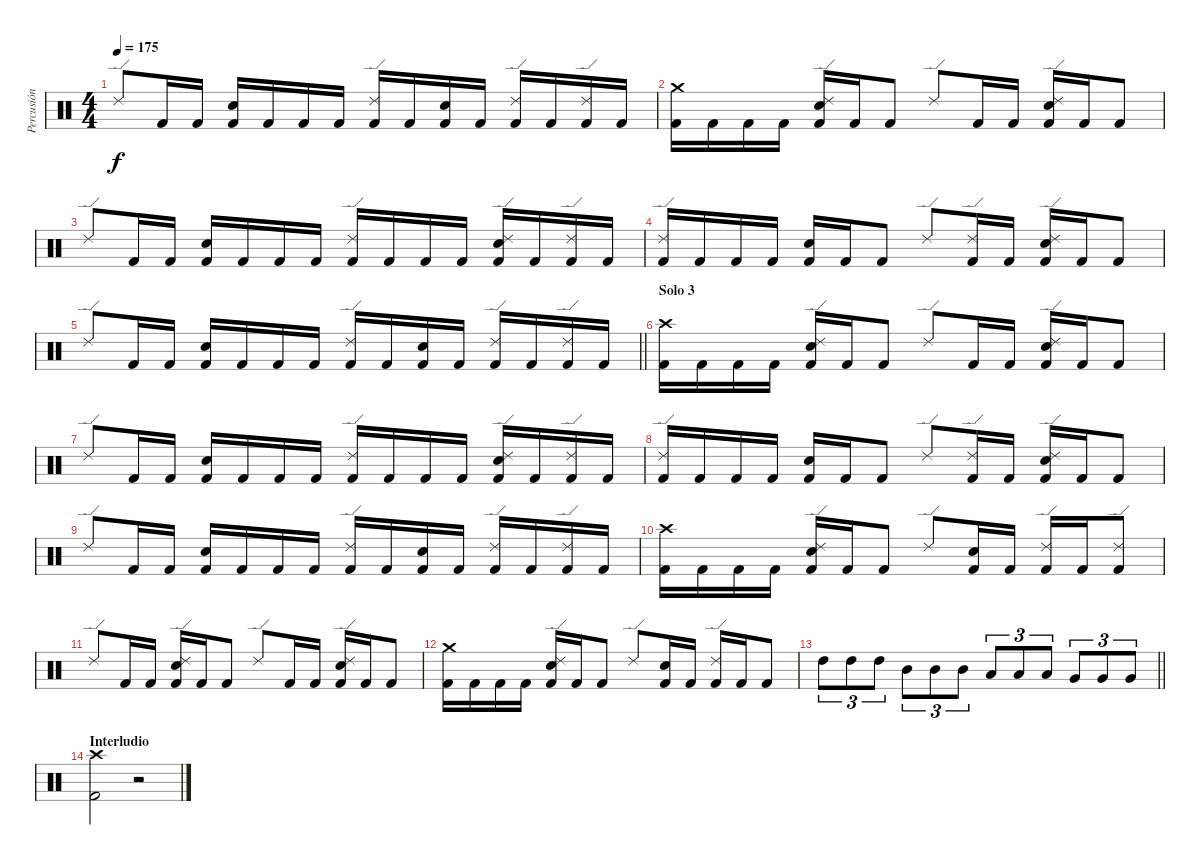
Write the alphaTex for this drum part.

\track ("Percusión" "Percusión") {instrument percussion}
\staff {score}
\articulation defaults
\ts (4 4)
\tempo 175
\clef neutral
\ks c "Ride (edge) 2".8{dy f} "Kick (hit) 2".16 "Kick (hit) 2".16
("Snare (hit) 2" "Kick (hit) 2").16 "Kick (hit) 2".16 "Kick (hit) 2".16 "Kick (hit) 2".16 ("Ride (edge) 2" "Kick (hit) 2").16 "Kick (hit) 2".16 ("Snare (hit) 2" "Kick (hit) 2").16 "Kick (hit) 2".16 ("Ride (edge) 2" "Kick (hit) 2").16 "Kick (hit) 2".16 ("Ride (edge) 2" "Kick (hit) 2").16 "Kick (hit) 2".16 |
("Crash medium (hit)" "Kick (hit) 2").16 "Kick (hit) 2".16 "Kick (hit) 2".16 "Kick (hit) 2".16 ("Ride (edge) 2" "Snare (hit) 2" "Kick (hit) 2").16 "Kick (hit) 2".16 "Kick (hit) 2".8 "Ride (edge) 2".8 "Kick (hit) 2".16 "Kick (hit) 2".16 ("Ride (edge) 2" "Snare (hit) 2" "Kick (hit) 2").16 "Kick (hit) 2".16 "Kick (hit) 2".8 |
"Ride (edge) 2".8 "Kick (hit) 2".16 "Kick (hit) 2".16 ("Snare (hit) 2" "Kick (hit) 2").16 "Kick (hit) 2".16 "Kick (hit) 2".16 "Kick (hit) 2".16 ("Ride (edge) 2" "Kick (hit) 2").16 "Kick (hit) 2".16 "Kick (hit) 2".16 "Kick (hit) 2".16 ("Ride (edge) 2" "Snare (hit) 2" "Kick (hit) 2").16 "Kick (hit) 2".16 ("Ride (edge) 2" "Kick (hit) 2").16 "Kick (hit) 2".16 |
("Ride (edge) 2" "Kick (hit) 2").16 "Kick (hit) 2".16 "Kick (hit) 2".16 "Kick (hit) 2".16 ("Snare (hit) 2" "Kick (hit) 2").16 "Kick (hit) 2".16 "Kick (hit) 2".8 "Ride (edge) 2".8 ("Ride (edge) 2" "Kick (hit) 2").16 "Kick (hit) 2".16 ("Ride (edge) 2" "Snare (hit) 2" "Kick (hit) 2").16 "Kick (hit) 2".16 "Kick (hit) 2".8 |
\barLineRight lightlight "Ride (edge) 2".8 "Kick (hit) 2".16 "Kick (hit) 2".16
("Snare (hit) 2" "Kick (hit) 2").16 "Kick (hit) 2".16 "Kick (hit) 2".16 "Kick (hit) 2".16 ("Ride (edge) 2" "Kick (hit) 2").16 "Kick (hit) 2".16 ("Snare (hit) 2" "Kick (hit) 2").16 "Kick (hit) 2".16 ("Ride (edge) 2" "Kick (hit) 2").16 "Kick (hit) 2".16 ("Ride (edge) 2" "Kick (hit) 2").16 "Kick (hit) 2".16 |
\section ("" "Solo 3")
("Crash high (hit)" "Kick (hit) 2").16 "Kick (hit) 2".16 "Kick (hit) 2".16 "Kick (hit) 2".16 ("Ride (edge) 2" "Snare (hit) 2" "Kick (hit) 2").16 "Kick (hit) 2".16 "Kick (hit) 2".8 "Ride (edge) 2".8 "Kick (hit) 2".16 "Kick (hit) 2".16 ("Ride (edge) 2" "Snare (hit) 2" "Kick (hit) 2").16 "Kick (hit) 2".16 "Kick (hit) 2".8 |
"Ride (edge) 2".8 "Kick (hit) 2".16 "Kick (hit) 2".16 ("Snare (hit) 2" "Kick (hit) 2").16 "Kick (hit) 2".16 "Kick (hit) 2".16 "Kick (hit) 2".16 ("Ride (edge) 2" "Kick (hit) 2").16 "Kick (hit) 2".16 "Kick (hit) 2".16 "Kick (hit) 2".16 ("Ride (edge) 2" "Snare (hit) 2" "Kick (hit) 2").16 "Kick (hit) 2".16 ("Ride (edge) 2" "Kick (hit) 2").16 "Kick (hit) 2".16 |
("Ride (edge) 2" "Kick (hit) 2").16 "Kick (hit) 2".16 "Kick (hit) 2".16 "Kick (hit) 2".16 ("Snare (hit) 2" "Kick (hit) 2").16 "Kick (hit) 2".16 "Kick (hit) 2".8 "Ride (edge) 2".8 ("Ride (edge) 2" "Kick (hit) 2").16 "Kick (hit) 2".16 ("Ride (edge) 2" "Snare (hit) 2" "Kick (hit) 2").16 "Kick (hit) 2".16 "Kick (hit) 2".8 |
"Ride (edge) 2".8 "Kick (hit) 2".16 "Kick (hit) 2".16 ("Snare (hit) 2" "Kick (hit) 2").16 "Kick (hit) 2".16 "Kick (hit) 2".16 "Kick (hit) 2".16 ("Ride (edge) 2" "Kick (hit) 2").16 "Kick (hit) 2".16 ("Snare (hit) 2" "Kick (hit) 2").16 "Kick (hit) 2".16 ("Ride (edge) 2" "Kick (hit) 2").16 "Kick (hit) 2".16 ("Ride (edge) 2" "Kick (hit) 2").16 "Kick (hit) 2".16 |
("Crash high (hit)" "Kick (hit) 2").16 "Kick (hit) 2".16 "Kick (hit) 2".16 "Kick (hit) 2".16 ("Ride (edge) 2" "Snare (hit) 2" "Kick (hit) 2").16 "Kick (hit) 2".16 "Kick (hit) 2".8 "Ride (edge) 2".8 ("Snare (hit) 2" "Kick (hit) 2").16 "Kick (hit) 2".16 ("Ride (edge) 2" "Kick (hit) 2").16 "Kick (hit) 2".16 ("Ride (edge) 2" "Kick (hit) 2").8 |
"Ride (edge) 2".8 "Kick (hit) 2".16 "Kick (hit) 2".16 ("Ride (edge) 2" "Snare (hit) 2" "Kick (hit) 2").16 "Kick (hit) 2".16 "Kick (hit) 2".8 "Ride (edge) 2".8 "Kick (hit) 2".16 "Kick (hit) 2".16 ("Ride (edge) 2" "Snare (hit) 2" "Kick (hit) 2").16 "Kick (hit) 2".16 "Kick (hit) 2".8 |
("Crash medium (hit)" "Kick (hit) 2").16 "Kick (hit) 2".16 "Kick (hit) 2".16 "Kick (hit) 2".16 ("Ride (edge) 2" "Snare (hit) 2" "Kick (hit) 2").16 "Kick (hit) 2".16 "Kick (hit) 2".8 "Ride (edge) 2".8 ("Snare (hit) 2" "Kick (hit) 2").16 "Kick (hit) 2".16 ("Ride (edge) 2" "Kick (hit) 2").16 "Kick (hit) 2".16 "Kick (hit) 2".8 |
\barLineRight lightlight "High Tom (hit)".8{tu (3 2)} "High Tom (hit)".8{tu (3 2)} "High Tom (hit)".8{tu (3 2)} "Mid Tom (hit)".8{tu (3 2)} "Mid Tom (hit)".8{tu (3 2)} "Mid Tom (hit)".8{tu (3 2)} "Low Tom (hit)".8{tu (3 2)} "Low Tom (hit)".8{tu (3 2)} "Low Tom (hit)".8{tu (3 2)} "Very Low Tom (hit)".8{tu (3 2)} "Very Low Tom (hit)".8{tu (3 2)} "Very Low Tom (hit)".8{tu (3 2)}
|
\section ("" "Interludio")
("Crash high (hit)" "Kick (hit) 2").2 r.2
